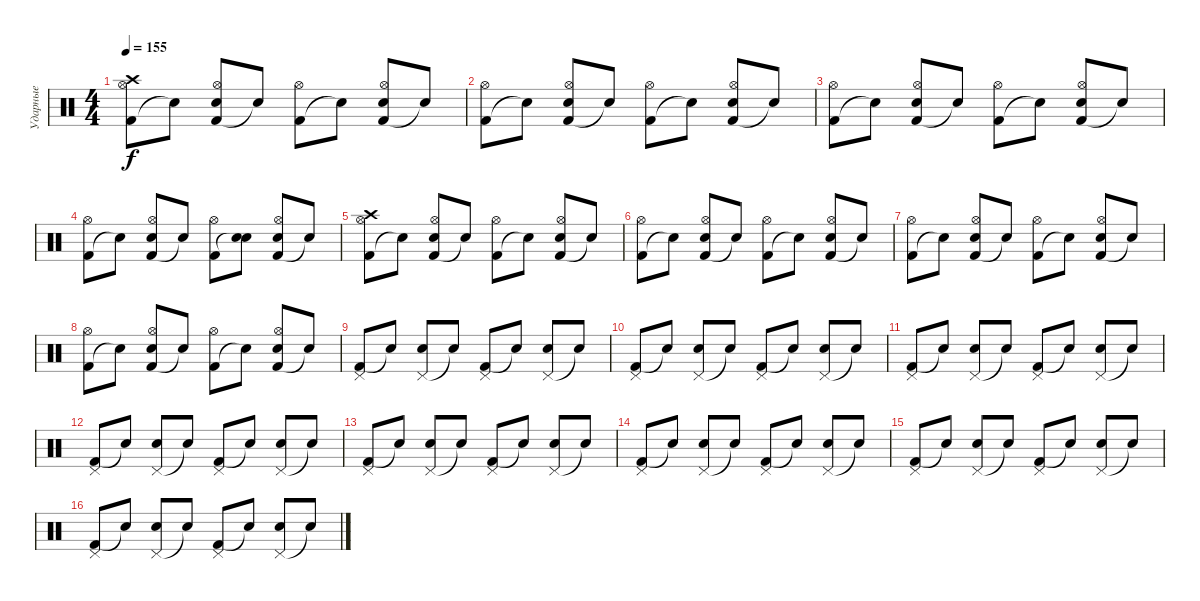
\track ("Ударные" "Ударные") {instrument percussion}
\staff {score}
\articulation defaults
\ts (4 4)
\tempo 155
\clef neutral
\ks c
("Kick (hit) 2" "Hi-Hat (open)" "Crash high (hit)").8{dy f} "Snare (hit)"{t}.8 ("Kick (hit) 2" "Hi-Hat (open)" "Snare (hit) 2").8 "Snare (hit)"{t}.8 ("Kick (hit) 2" "Hi-Hat (open)").8 "Snare (hit)"{t}.8 ("Kick (hit) 2" "Hi-Hat (open)" "Snare (hit) 2").8 "Snare (hit)"{t}.8 |
("Kick (hit) 2" "Hi-Hat (open)").8 "Snare (hit)"{t}.8 ("Kick (hit) 2" "Hi-Hat (open)" "Snare (hit) 2").8 "Snare (hit)"{t}.8 ("Kick (hit) 2" "Hi-Hat (open)").8 "Snare (hit)"{t}.8 ("Kick (hit) 2" "Hi-Hat (open)" "Snare (hit) 2").8 "Snare (hit)"{t}.8 |
("Kick (hit) 2" "Hi-Hat (open)").8 "Snare (hit)"{t}.8 ("Kick (hit) 2" "Hi-Hat (open)" "Snare (hit) 2").8 "Snare (hit)"{t}.8 ("Kick (hit) 2" "Hi-Hat (open)").8 "Snare (hit)"{t}.8 ("Kick (hit) 2" "Hi-Hat (open)" "Snare (hit) 2").8 "Snare (hit)"{t}.8 |
("Kick (hit) 2" "Hi-Hat (open)").8 "Snare (hit)"{t}.8 ("Kick (hit) 2" "Hi-Hat (open)" "Snare (hit) 2").8 "Snare (hit)"{t}.8 ("Kick (hit) 2" "Hi-Hat (open)").8 ("Snare (hit)"{t} "Snare (hit) 2").8 ("Kick (hit) 2" "Hi-Hat (open)" "Snare (hit) 2").8 "Snare (hit)"{t}.8 |
("Kick (hit) 2" "Hi-Hat (open)" "Crash high (hit)").8 "Snare (hit)"{t}.8 ("Kick (hit) 2" "Hi-Hat (open)" "Snare (hit) 2").8 "Snare (hit)"{t}.8 ("Kick (hit) 2" "Hi-Hat (open)").8 "Snare (hit)"{t}.8 ("Kick (hit) 2" "Hi-Hat (open)" "Snare (hit) 2").8 "Snare (hit)"{t}.8 |
("Kick (hit) 2" "Hi-Hat (open)").8 "Snare (hit)"{t}.8 ("Kick (hit) 2" "Hi-Hat (open)" "Snare (hit) 2").8 "Snare (hit)"{t}.8 ("Kick (hit) 2" "Hi-Hat (open)").8 "Snare (hit)"{t}.8 ("Kick (hit) 2" "Hi-Hat (open)" "Snare (hit) 2").8 "Snare (hit)"{t}.8 |
("Kick (hit) 2" "Hi-Hat (open)").8 "Snare (hit)"{t}.8 ("Kick (hit) 2" "Hi-Hat (open)" "Snare (hit) 2").8 "Snare (hit)"{t}.8 ("Kick (hit) 2" "Hi-Hat (open)").8 "Snare (hit)"{t}.8 ("Kick (hit) 2" "Hi-Hat (open)" "Snare (hit) 2").8 "Snare (hit)"{t}.8 |
("Kick (hit) 2" "Hi-Hat (open)").8 "Snare (hit)"{t}.8 ("Kick (hit) 2" "Hi-Hat (open)" "Snare (hit) 2").8 "Snare (hit)"{t}.8 ("Kick (hit) 2" "Hi-Hat (open)").8 "Snare (hit)"{t}.8 ("Kick (hit) 2" "Hi-Hat (open)" "Snare (hit) 2").8 "Snare (hit)"{t}.8 |
("Kick (hit) 2" "Pedal Hi-Hat (hit)").8 "Snare (hit)"{t}.8 ("Pedal Hi-Hat (hit)" "Snare (hit) 2").8 "Snare (hit)"{t}.8 ("Kick (hit) 2" "Pedal Hi-Hat (hit)").8 "Snare (hit)"{t}.8 ("Pedal Hi-Hat (hit)" "Snare (hit) 2").8 "Snare (hit)"{t}.8 |
("Kick (hit) 2" "Pedal Hi-Hat (hit)").8 "Snare (hit)"{t}.8 ("Pedal Hi-Hat (hit)" "Snare (hit) 2").8 "Snare (hit)"{t}.8 ("Kick (hit) 2" "Pedal Hi-Hat (hit)").8 "Snare (hit)"{t}.8 ("Pedal Hi-Hat (hit)" "Snare (hit) 2").8 "Snare (hit)"{t}.8 |
("Kick (hit) 2" "Pedal Hi-Hat (hit)").8 "Snare (hit)"{t}.8 ("Pedal Hi-Hat (hit)" "Snare (hit) 2").8 "Snare (hit)"{t}.8 ("Kick (hit) 2" "Pedal Hi-Hat (hit)").8 "Snare (hit)"{t}.8 ("Pedal Hi-Hat (hit)" "Snare (hit) 2").8 "Snare (hit)"{t}.8 |
("Kick (hit) 2" "Pedal Hi-Hat (hit)").8 "Snare (hit)"{t}.8 ("Pedal Hi-Hat (hit)" "Snare (hit) 2").8 "Snare (hit)"{t}.8 ("Kick (hit) 2" "Pedal Hi-Hat (hit)").8 "Snare (hit)"{t}.8 ("Pedal Hi-Hat (hit)" "Snare (hit) 2").8 "Snare (hit)"{t}.8 |
("Kick (hit) 2" "Pedal Hi-Hat (hit)").8 "Snare (hit)"{t}.8 ("Pedal Hi-Hat (hit)" "Snare (hit) 2").8 "Snare (hit)"{t}.8 ("Kick (hit) 2" "Pedal Hi-Hat (hit)").8 "Snare (hit)"{t}.8 ("Pedal Hi-Hat (hit)" "Snare (hit) 2").8 "Snare (hit)"{t}.8 |
("Kick (hit) 2" "Pedal Hi-Hat (hit)").8 "Snare (hit)"{t}.8 ("Pedal Hi-Hat (hit)" "Snare (hit) 2").8 "Snare (hit)"{t}.8 ("Kick (hit) 2" "Pedal Hi-Hat (hit)").8 "Snare (hit)"{t}.8 ("Pedal Hi-Hat (hit)" "Snare (hit) 2").8 "Snare (hit)"{t}.8 |
("Kick (hit) 2" "Pedal Hi-Hat (hit)").8 "Snare (hit)"{t}.8 ("Pedal Hi-Hat (hit)" "Snare (hit) 2").8 "Snare (hit)"{t}.8 ("Kick (hit) 2" "Pedal Hi-Hat (hit)").8 "Snare (hit)"{t}.8 ("Pedal Hi-Hat (hit)" "Snare (hit) 2").8 "Snare (hit)"{t}.8 |
("Kick (hit) 2" "Pedal Hi-Hat (hit)").8 "Snare (hit)"{t}.8 ("Pedal Hi-Hat (hit)" "Snare (hit) 2").8 "Snare (hit)"{t}.8 ("Kick (hit) 2" "Pedal Hi-Hat (hit)").8 "Snare (hit)"{t}.8 ("Pedal Hi-Hat (hit)" "Snare (hit) 2").8 "Snare (hit)"{t}.8
